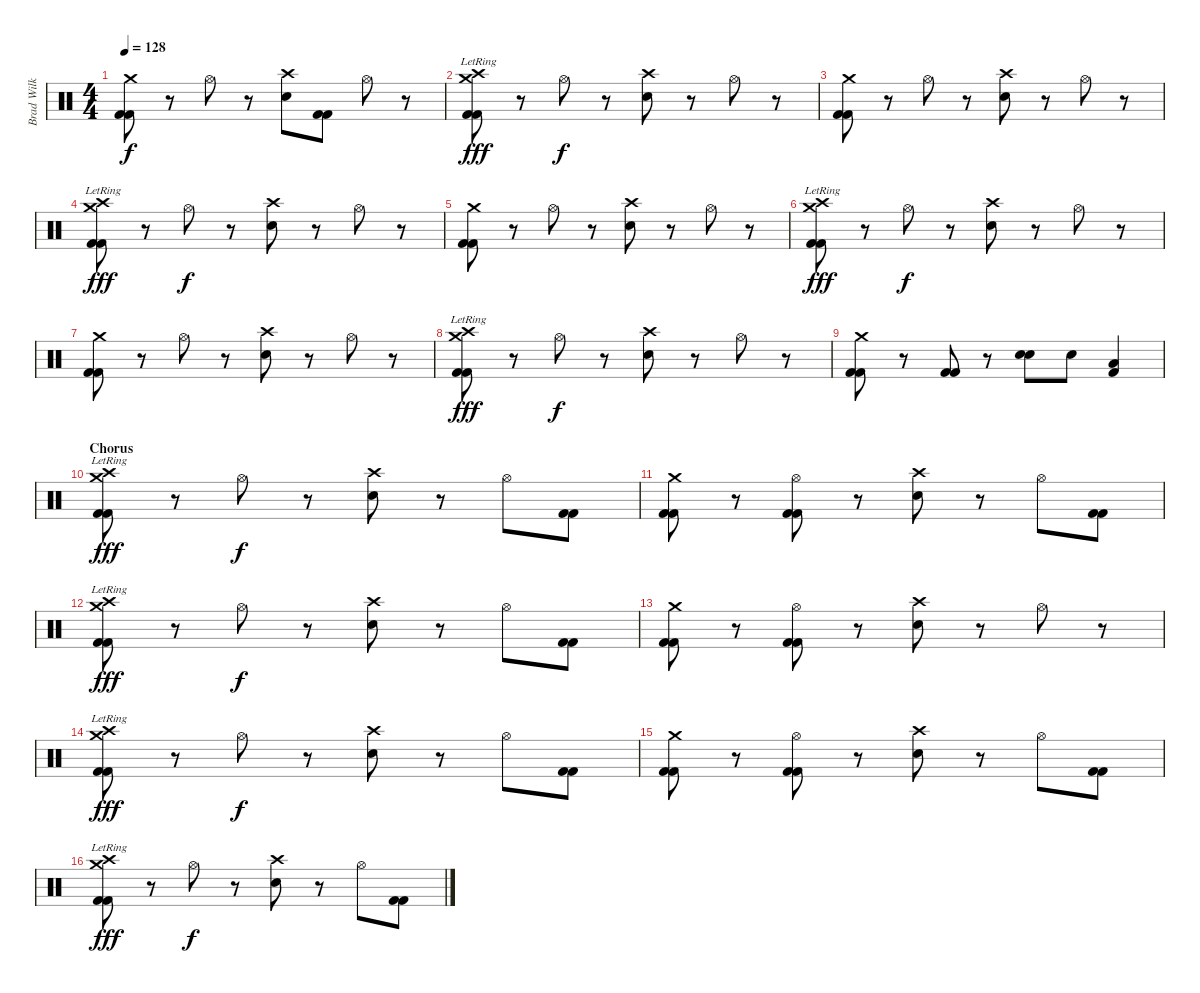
\track ("Brad Wilk" "Brad Wilk") {instrument percussion}
\staff {score}
\articulation defaults
\ts (4 4)
\tempo 128
\clef neutral
\ks c
("Crash medium (hit)" "Kick (hit) 2" "Kick (hit) 2").8{dy f} r.8 "Hi-Hat (open)".8 r.8 ("Crash high (hit)" "Electric Snare (hit)").8 ("Kick (hit) 2" "Kick (hit) 2").8 "Hi-Hat (open)".8 r.8 |
("Crash high (hit)"{lr} "Crash medium (hit)"{lr} "Kick (hit) 2" "Kick (hit) 2").8{dy fff} r.8 "Hi-Hat (open)".8{dy f} r.8 ("Crash high (hit)" "Electric Snare (hit)").8 r.8 "Hi-Hat (open)".8 r.8 |
("Crash medium (hit)" "Kick (hit) 2" "Kick (hit) 2").8 r.8 "Hi-Hat (open)".8 r.8 ("Crash high (hit)" "Electric Snare (hit)").8 r.8 "Hi-Hat (open)".8 r.8 |
("Crash high (hit)"{lr} "Crash medium (hit)"{lr} "Kick (hit) 2" "Kick (hit) 2").8{dy fff} r.8 "Hi-Hat (open)".8{dy f} r.8 ("Crash high (hit)" "Electric Snare (hit)").8 r.8 "Hi-Hat (open)".8 r.8 |
("Crash medium (hit)" "Kick (hit) 2" "Kick (hit) 2").8 r.8 "Hi-Hat (open)".8 r.8 ("Crash high (hit)" "Electric Snare (hit)").8 r.8 "Hi-Hat (open)".8 r.8 |
("Crash high (hit)"{lr} "Crash medium (hit)"{lr} "Kick (hit) 2" "Kick (hit) 2").8{dy fff} r.8 "Hi-Hat (open)".8{dy f} r.8 ("Crash high (hit)" "Electric Snare (hit)").8 r.8 "Hi-Hat (open)".8 r.8 |
("Crash medium (hit)" "Kick (hit) 2" "Kick (hit) 2").8 r.8 "Hi-Hat (open)".8 r.8 ("Crash high (hit)" "Electric Snare (hit)").8 r.8 "Hi-Hat (open)".8 r.8 |
("Crash high (hit)"{lr} "Crash medium (hit)"{lr} "Kick (hit) 2" "Kick (hit) 2").8{dy fff} r.8 "Hi-Hat (open)".8{dy f} r.8 ("Crash high (hit)" "Electric Snare (hit)").8 r.8 "Hi-Hat (open)".8 r.8 |
("Crash medium (hit)" "Kick (hit) 2" "Kick (hit) 2").8 r.8 ("Kick (hit) 2" "Kick (hit) 2").8 r.8 ("Electric Snare (hit)" "Electric Snare (hit)").8{bd 480} "Electric Snare (hit)".8 ("Low Tom (hit)" "Kick (hit) 2").4 |
\section ("" "Chorus")
("Crash high (hit)"{lr} "Crash medium (hit)"{lr} "Kick (hit) 2" "Kick (hit) 2").8{dy fff} r.8 "Hi-Hat (open)".8{dy f} r.8 ("Crash high (hit)" "Electric Snare (hit)").8 r.8 "Hi-Hat (open)".8 ("Kick (hit) 2" "Kick (hit) 2").8 |
("Crash medium (hit)" "Kick (hit) 2" "Kick (hit) 2").8 r.8 ("Hi-Hat (open)" "Kick (hit) 2" "Kick (hit) 2").8 r.8 ("Crash high (hit)" "Electric Snare (hit)").8 r.8 "Hi-Hat (open)".8 ("Kick (hit) 2" "Kick (hit) 2").8 |
("Crash high (hit)"{lr} "Crash medium (hit)"{lr} "Kick (hit) 2" "Kick (hit) 2").8{dy fff} r.8 "Hi-Hat (open)".8{dy f} r.8 ("Crash high (hit)" "Electric Snare (hit)").8 r.8 "Hi-Hat (open)".8 ("Kick (hit) 2" "Kick (hit) 2").8 |
("Crash medium (hit)" "Kick (hit) 2" "Kick (hit) 2").8 r.8 ("Hi-Hat (open)" "Kick (hit) 2" "Kick (hit) 2").8 r.8 ("Crash high (hit)" "Electric Snare (hit)").8 r.8 "Hi-Hat (open)".8 r.8 |
("Crash high (hit)"{lr} "Crash medium (hit)"{lr} "Kick (hit) 2" "Kick (hit) 2").8{dy fff} r.8 "Hi-Hat (open)".8{dy f} r.8 ("Crash high (hit)" "Electric Snare (hit)").8 r.8 "Hi-Hat (open)".8 ("Kick (hit) 2" "Kick (hit) 2").8 |
("Crash medium (hit)" "Kick (hit) 2" "Kick (hit) 2").8 r.8 ("Hi-Hat (open)" "Kick (hit) 2" "Kick (hit) 2").8 r.8 ("Crash high (hit)" "Electric Snare (hit)").8 r.8 "Hi-Hat (open)".8 ("Kick (hit) 2" "Kick (hit) 2").8 |
("Crash high (hit)"{lr} "Crash medium (hit)"{lr} "Kick (hit) 2" "Kick (hit) 2").8{dy fff} r.8 "Hi-Hat (open)".8{dy f} r.8 ("Crash high (hit)" "Electric Snare (hit)").8 r.8 "Hi-Hat (open)".8 ("Kick (hit) 2" "Kick (hit) 2").8
